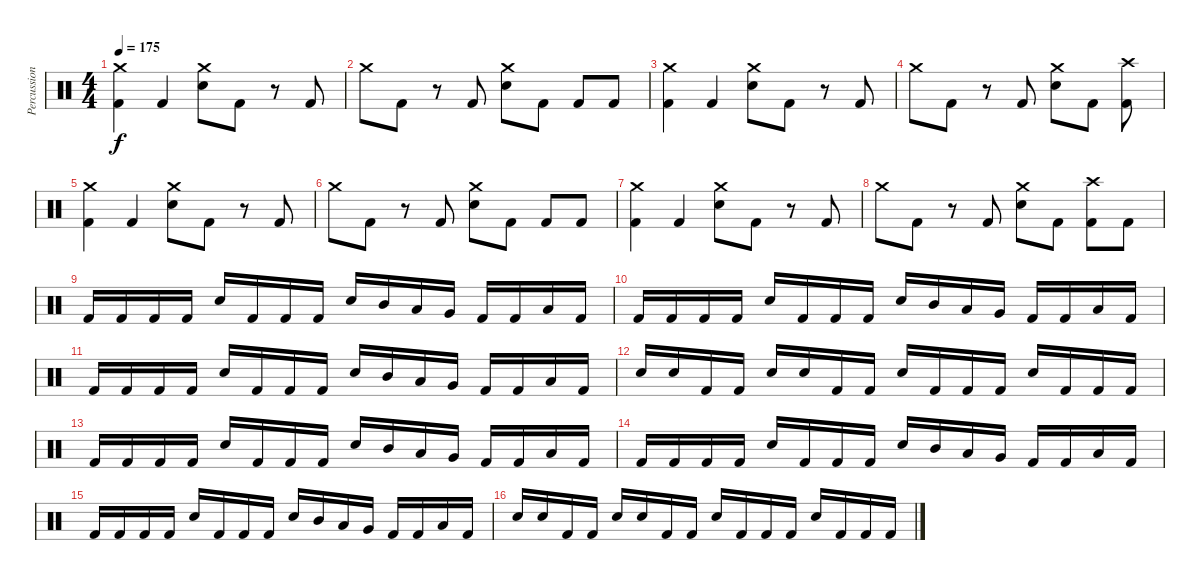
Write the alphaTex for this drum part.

\track ("Percussion" "Percussion") {instrument percussion}
\staff {score}
\articulation defaults
\ts (4 4)
\tempo 175
\clef neutral
\ks c
("Kick (hit) 2" "Crash medium (hit)").4{dy f} "Kick (hit) 2".4 ("Electric Snare (hit)" "Crash medium (hit)").8 "Kick (hit) 2".8 r.8 "Kick (hit) 2".8 |
"Crash medium (hit)".8 "Kick (hit) 2".8 r.8 "Kick (hit) 2".8 ("Electric Snare (hit)" "Crash medium (hit)").8 "Kick (hit) 2".8 "Kick (hit) 2".8 "Kick (hit) 2".8 |
("Kick (hit) 2" "Crash medium (hit)").4 "Kick (hit) 2".4 ("Electric Snare (hit)" "Crash medium (hit)").8 "Kick (hit) 2".8 r.8 "Kick (hit) 2".8 |
"Crash medium (hit)".8 "Kick (hit) 2".8 r.8 "Kick (hit) 2".8 ("Electric Snare (hit)" "Crash medium (hit)").8 "Kick (hit) 2".8 ("Kick (hit) 2" "Crash high (hit)").8 |
("Kick (hit) 2" "Crash medium (hit)").4 "Kick (hit) 2".4 ("Electric Snare (hit)" "Crash medium (hit)").8 "Kick (hit) 2".8 r.8 "Kick (hit) 2".8 |
"Crash medium (hit)".8 "Kick (hit) 2".8 r.8 "Kick (hit) 2".8 ("Electric Snare (hit)" "Crash medium (hit)").8 "Kick (hit) 2".8 "Kick (hit) 2".8 "Kick (hit) 2".8 |
("Kick (hit) 2" "Crash medium (hit)").4 "Kick (hit) 2".4 ("Electric Snare (hit)" "Crash medium (hit)").8 "Kick (hit) 2".8 r.8 "Kick (hit) 2".8 |
"Crash medium (hit)".8 "Kick (hit) 2".8 r.8 "Kick (hit) 2".8 ("Electric Snare (hit)" "Crash medium (hit)").8 "Kick (hit) 2".8 ("Kick (hit) 2" "Crash high (hit)").8 "Kick (hit) 2".8 |
"Kick (hit) 2".16 "Kick (hit) 2".16 "Kick (hit) 2".16 "Kick (hit) 2".16 "Electric Snare (hit)".16 "Kick (hit) 2".16 "Kick (hit) 2".16 "Kick (hit) 2".16 "Electric Snare (hit)".16 "Mid Tom (hit)".16 "Low Tom (hit)".16 "Very Low Tom (hit)".16 "Kick (hit) 2".16 "Kick (hit) 2".16 "Low Tom (hit)".16 "Kick (hit) 2".16 |
"Kick (hit) 2".16 "Kick (hit) 2".16 "Kick (hit) 2".16 "Kick (hit) 2".16 "Electric Snare (hit)".16 "Kick (hit) 2".16 "Kick (hit) 2".16 "Kick (hit) 2".16 "Electric Snare (hit)".16 "Mid Tom (hit)".16 "Low Tom (hit)".16 "Very Low Tom (hit)".16 "Kick (hit) 2".16 "Kick (hit) 2".16 "Low Tom (hit)".16 "Kick (hit) 2".16 |
"Kick (hit) 2".16 "Kick (hit) 2".16 "Kick (hit) 2".16 "Kick (hit) 2".16 "Electric Snare (hit)".16 "Kick (hit) 2".16 "Kick (hit) 2".16 "Kick (hit) 2".16 "Electric Snare (hit)".16 "Mid Tom (hit)".16 "Low Tom (hit)".16 "Very Low Tom (hit)".16 "Kick (hit) 2".16 "Kick (hit) 2".16 "Low Tom (hit)".16 "Kick (hit) 2".16 |
"Electric Snare (hit)".16 "Electric Snare (hit)".16 "Kick (hit) 2".16 "Kick (hit) 2".16 "Electric Snare (hit)".16 "Electric Snare (hit)".16 "Kick (hit) 2".16 "Kick (hit) 2".16 "Electric Snare (hit)".16 "Kick (hit) 2".16 "Kick (hit) 2".16 "Kick (hit) 2".16 "Electric Snare (hit)".16 "Kick (hit) 2".16 "Kick (hit) 2".16 "Kick (hit) 2".16 |
"Kick (hit) 2".16 "Kick (hit) 2".16 "Kick (hit) 2".16 "Kick (hit) 2".16 "Electric Snare (hit)".16 "Kick (hit) 2".16 "Kick (hit) 2".16 "Kick (hit) 2".16 "Electric Snare (hit)".16 "Mid Tom (hit)".16 "Low Tom (hit)".16 "Very Low Tom (hit)".16 "Kick (hit) 2".16 "Kick (hit) 2".16 "Low Tom (hit)".16 "Kick (hit) 2".16 |
"Kick (hit) 2".16 "Kick (hit) 2".16 "Kick (hit) 2".16 "Kick (hit) 2".16 "Electric Snare (hit)".16 "Kick (hit) 2".16 "Kick (hit) 2".16 "Kick (hit) 2".16 "Electric Snare (hit)".16 "Mid Tom (hit)".16 "Low Tom (hit)".16 "Very Low Tom (hit)".16 "Kick (hit) 2".16 "Kick (hit) 2".16 "Low Tom (hit)".16 "Kick (hit) 2".16 |
"Kick (hit) 2".16 "Kick (hit) 2".16 "Kick (hit) 2".16 "Kick (hit) 2".16 "Electric Snare (hit)".16 "Kick (hit) 2".16 "Kick (hit) 2".16 "Kick (hit) 2".16 "Electric Snare (hit)".16 "Mid Tom (hit)".16 "Low Tom (hit)".16 "Very Low Tom (hit)".16 "Kick (hit) 2".16 "Kick (hit) 2".16 "Low Tom (hit)".16 "Kick (hit) 2".16 |
"Electric Snare (hit)".16 "Electric Snare (hit)".16 "Kick (hit) 2".16 "Kick (hit) 2".16 "Electric Snare (hit)".16 "Electric Snare (hit)".16 "Kick (hit) 2".16 "Kick (hit) 2".16 "Electric Snare (hit)".16 "Kick (hit) 2".16 "Kick (hit) 2".16 "Kick (hit) 2".16 "Electric Snare (hit)".16 "Kick (hit) 2".16 "Kick (hit) 2".16 "Kick (hit) 2".16
